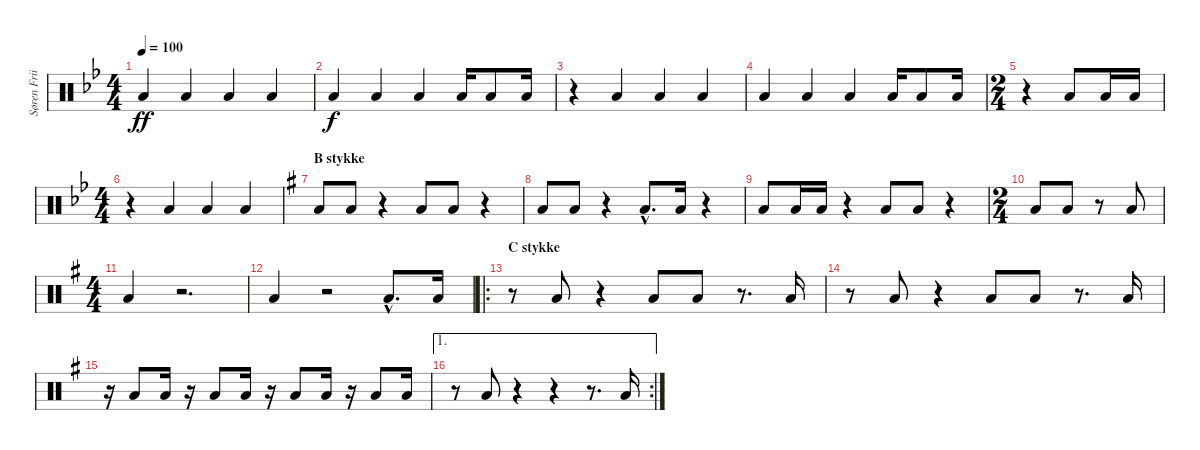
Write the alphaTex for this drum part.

\track ("Søren Friis (Drums)" "Søren Frii") {instrument percussion}
\staff {score}
\articulation defaults
\ts (4 4)
\tempo 100
\clef neutral
\ks bb "Low Floor Tom (hit)".4{dy ff} "Low Floor Tom (hit)".4 "Low Floor Tom (hit)".4 "Low Floor Tom (hit)".4
|
"Low Floor Tom (hit)".4{dy f} "Low Floor Tom (hit)".4 "Low Floor Tom (hit)".4 "Low Floor Tom (hit)".16 "Low Floor Tom (hit)".8 "Low Floor Tom (hit)".16 |
r.4 "Low Floor Tom (hit)".4 "Low Floor Tom (hit)".4 "Low Floor Tom (hit)".4 |
"Low Floor Tom (hit)".4 "Low Floor Tom (hit)".4 "Low Floor Tom (hit)".4 "Low Floor Tom (hit)".16 "Low Floor Tom (hit)".8 "Low Floor Tom (hit)".16 |
\ts (2 4)
r.4 "Low Floor Tom (hit)".8 "Low Floor Tom (hit)".16 "Low Floor Tom (hit)".16 |
\ts (4 4)
r.4 "Low Floor Tom (hit)".4 "Low Floor Tom (hit)".4 "Low Floor Tom (hit)".4 |
\section ("" "B stykke")
\ks g "Low Floor Tom (hit)".8 "Low Floor Tom (hit)".8
r.4 "Low Floor Tom (hit)".8 "Low Floor Tom (hit)".8 r.4 |
"Low Floor Tom (hit)".8 "Low Floor Tom (hit)".8 r.4 "Low Floor Tom (hit)"{hac}.8{d} "Low Floor Tom (hit)".16 r.4 |
"Low Floor Tom (hit)".8 "Low Floor Tom (hit)".16 "Low Floor Tom (hit)".16 r.4 "Low Floor Tom (hit)".8 "Low Floor Tom (hit)".8 r.4 |
\ts (2 4)
"Low Floor Tom (hit)".8 "Low Floor Tom (hit)".8 r.8 "Low Floor Tom (hit)".8 |
\ts (4 4)
"Low Floor Tom (hit)".4 r.2{d} |
"Low Floor Tom (hit)".4 r.2 "Low Floor Tom (hit)"{hac}.8{d} "Low Floor Tom (hit)".16 |
\ro
\section ("" "C stykke")
r.8 "Low Floor Tom (hit)".8 r.4 "Low Floor Tom (hit)".8 "Low Floor Tom (hit)".8 r.8{d} "Low Floor Tom (hit)".16 |
r.8 "Low Floor Tom (hit)".8 r.4 "Low Floor Tom (hit)".8 "Low Floor Tom (hit)".8 r.8{d} "Low Floor Tom (hit)".16 |
r.16 "Low Floor Tom (hit)".8 "Low Floor Tom (hit)".16 r.16 "Low Floor Tom (hit)".8 "Low Floor Tom (hit)".16 r.16 "Low Floor Tom (hit)".8 "Low Floor Tom (hit)".16 r.16 "Low Floor Tom (hit)".8 "Low Floor Tom (hit)".16 |
\ae 1
\rc 2
r.8 "Low Floor Tom (hit)".8 r.4 r.4 r.8{d} "Low Floor Tom (hit)".16
